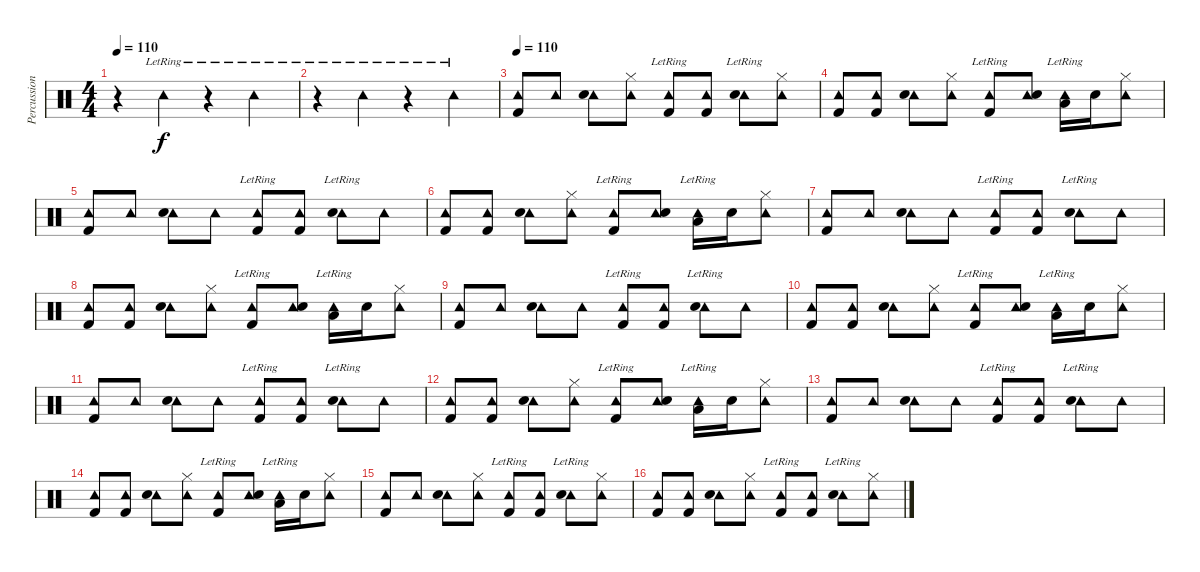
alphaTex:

\track ("Percussion" "Percussion") {instrument percussion}
\staff {score}
\articulation defaults
\ts (4 4)
\tempo 110
\clef neutral
\ks c
r.4{dy f} "Tambourine (hit)"{lr}.4 r.4 "Tambourine (hit)"{lr}.4 |
r.4 "Tambourine (hit)"{lr}.4 r.4 "Tambourine (hit)"{lr}.4 |
\tempo 110
("Tambourine (hit)" "Kick (hit) 2").8 "Tambourine (hit)".8 ("Tambourine (hit)" "Electric Snare (hit)").8 ("Tambourine (hit)" "Hi-Hat (closed)").8 ("Tambourine (hit)"{lr} "Kick (hit) 2").8 ("Tambourine (hit)" "Kick (hit) 2").8 ("Tambourine (hit)"{lr} "Electric Snare (hit)").8 ("Tambourine (hit)" "Hi-Hat (closed)").8 |
("Tambourine (hit)" "Kick (hit) 2").8 ("Tambourine (hit)" "Kick (hit) 2").8 ("Tambourine (hit)" "Electric Snare (hit)").8 ("Tambourine (hit)" "Hi-Hat (closed)").8 ("Tambourine (hit)"{lr} "Kick (hit) 2").8 ("Tambourine (hit)" "Electric Snare (hit)").8 ("Tambourine (hit)"{lr} "Low Tom (hit)").16 "Electric Snare (hit)".16 ("Tambourine (hit)" "Hi-Hat (closed)").8 |
("Tambourine (hit)" "Kick (hit) 2").8 "Tambourine (hit)".8 ("Tambourine (hit)" "Electric Snare (hit)").8 "Tambourine (hit)".8 ("Tambourine (hit)"{lr} "Kick (hit) 2").8 ("Tambourine (hit)" "Kick (hit) 2").8 ("Tambourine (hit)"{lr} "Electric Snare (hit)").8 "Tambourine (hit)".8 |
("Tambourine (hit)" "Kick (hit) 2").8 ("Tambourine (hit)" "Kick (hit) 2").8 ("Tambourine (hit)" "Electric Snare (hit)").8 ("Tambourine (hit)" "Hi-Hat (closed)").8 ("Tambourine (hit)"{lr} "Kick (hit) 2").8 ("Tambourine (hit)" "Electric Snare (hit)").8 ("Tambourine (hit)"{lr} "Low Tom (hit)").16 "Electric Snare (hit)".16 ("Tambourine (hit)" "Hi-Hat (closed)").8 |
("Tambourine (hit)" "Kick (hit) 2").8 "Tambourine (hit)".8 ("Tambourine (hit)" "Electric Snare (hit)").8 "Tambourine (hit)".8 ("Tambourine (hit)"{lr} "Kick (hit) 2").8 ("Tambourine (hit)" "Kick (hit) 2").8 ("Tambourine (hit)"{lr} "Electric Snare (hit)").8 "Tambourine (hit)".8 |
("Tambourine (hit)" "Kick (hit) 2").8 ("Tambourine (hit)" "Kick (hit) 2").8 ("Tambourine (hit)" "Electric Snare (hit)").8 ("Tambourine (hit)" "Hi-Hat (closed)").8 ("Tambourine (hit)"{lr} "Kick (hit) 2").8 ("Tambourine (hit)" "Electric Snare (hit)").8 ("Tambourine (hit)"{lr} "Low Tom (hit)").16 "Electric Snare (hit)".16 ("Tambourine (hit)" "Hi-Hat (closed)").8 |
("Tambourine (hit)" "Kick (hit) 2").8 "Tambourine (hit)".8 ("Tambourine (hit)" "Electric Snare (hit)").8 "Tambourine (hit)".8 ("Tambourine (hit)"{lr} "Kick (hit) 2").8 ("Tambourine (hit)" "Kick (hit) 2").8 ("Tambourine (hit)"{lr} "Electric Snare (hit)").8 "Tambourine (hit)".8 |
("Tambourine (hit)" "Kick (hit) 2").8 ("Tambourine (hit)" "Kick (hit) 2").8 ("Tambourine (hit)" "Electric Snare (hit)").8 ("Tambourine (hit)" "Hi-Hat (closed)").8 ("Tambourine (hit)"{lr} "Kick (hit) 2").8 ("Tambourine (hit)" "Electric Snare (hit)").8 ("Tambourine (hit)"{lr} "Low Tom (hit)").16 "Electric Snare (hit)".16 ("Tambourine (hit)" "Hi-Hat (closed)").8 |
("Tambourine (hit)" "Kick (hit) 2").8 "Tambourine (hit)".8 ("Tambourine (hit)" "Electric Snare (hit)").8 "Tambourine (hit)".8 ("Tambourine (hit)"{lr} "Kick (hit) 2").8 ("Tambourine (hit)" "Kick (hit) 2").8 ("Tambourine (hit)"{lr} "Electric Snare (hit)").8 "Tambourine (hit)".8 |
("Tambourine (hit)" "Kick (hit) 2").8 ("Tambourine (hit)" "Kick (hit) 2").8 ("Tambourine (hit)" "Electric Snare (hit)").8 ("Tambourine (hit)" "Hi-Hat (closed)").8 ("Tambourine (hit)"{lr} "Kick (hit) 2").8 ("Tambourine (hit)" "Electric Snare (hit)").8 ("Tambourine (hit)"{lr} "Low Tom (hit)").16 "Electric Snare (hit)".16 ("Tambourine (hit)" "Hi-Hat (closed)").8 |
("Tambourine (hit)" "Kick (hit) 2").8 "Tambourine (hit)".8 ("Tambourine (hit)" "Electric Snare (hit)").8 "Tambourine (hit)".8 ("Tambourine (hit)"{lr} "Kick (hit) 2").8 ("Tambourine (hit)" "Kick (hit) 2").8 ("Tambourine (hit)"{lr} "Electric Snare (hit)").8 "Tambourine (hit)".8 |
("Tambourine (hit)" "Kick (hit) 2").8 ("Tambourine (hit)" "Kick (hit) 2").8 ("Tambourine (hit)" "Electric Snare (hit)").8 ("Tambourine (hit)" "Hi-Hat (closed)").8 ("Tambourine (hit)"{lr} "Kick (hit) 2").8 ("Tambourine (hit)" "Electric Snare (hit)").8 ("Tambourine (hit)"{lr} "Low Tom (hit)").16 "Electric Snare (hit)".16 ("Tambourine (hit)" "Hi-Hat (closed)").8 |
("Tambourine (hit)" "Kick (hit) 2").8 "Tambourine (hit)".8 ("Tambourine (hit)" "Electric Snare (hit)").8 ("Tambourine (hit)" "Hi-Hat (closed)").8 ("Tambourine (hit)"{lr} "Kick (hit) 2").8 ("Tambourine (hit)" "Kick (hit) 2").8 ("Tambourine (hit)"{lr} "Electric Snare (hit)").8 ("Tambourine (hit)" "Hi-Hat (closed)").8 |
("Tambourine (hit)" "Kick (hit) 2").8 ("Tambourine (hit)" "Kick (hit) 2").8 ("Tambourine (hit)" "Electric Snare (hit)").8 ("Tambourine (hit)" "Hi-Hat (closed)").8 ("Tambourine (hit)"{lr} "Kick (hit) 2").8 ("Tambourine (hit)" "Kick (hit) 2").8 ("Tambourine (hit)"{lr} "Electric Snare (hit)").8 ("Tambourine (hit)" "Hi-Hat (closed)").8
